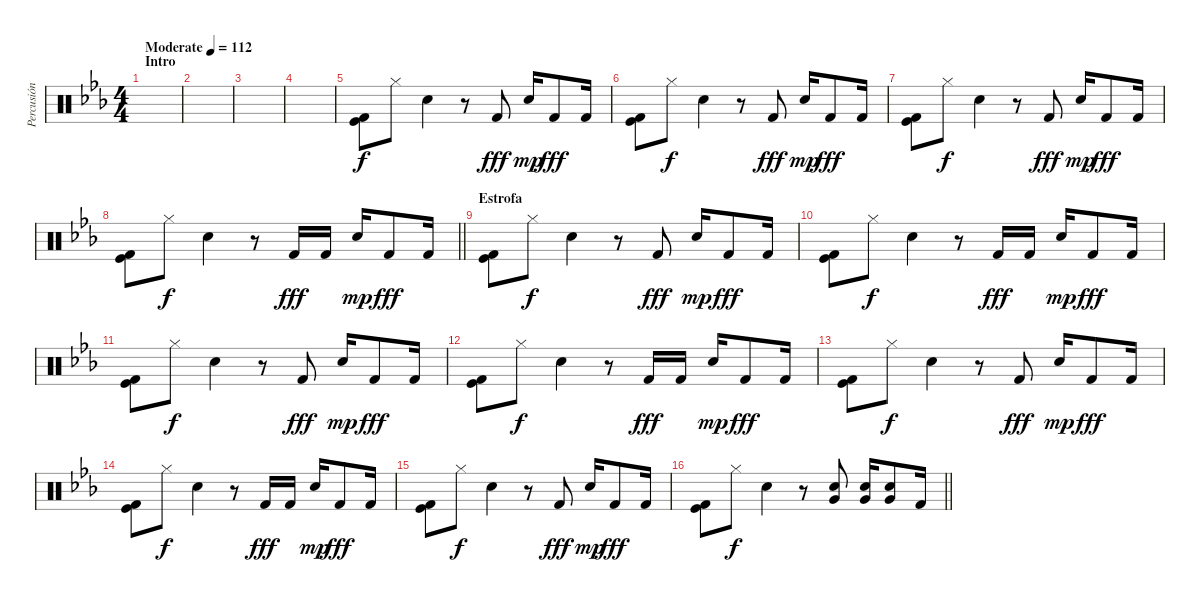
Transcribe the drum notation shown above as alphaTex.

\track ("Percusión" "Percusión") {instrument percussion}
\staff {score}
\articulation defaults
\ts (4 4)
\section ("" "Intro")
\tempo (112 "Moderate")
\clef neutral
\ks cminor
|
|
|
|
("Kick (hit) 2" "Kick (hit)").8 "Hi-Hat (closed)".8{dy f} "Snare (hit) 2".4 r.8 "Kick (hit) 2".8{dy fff} "Snare (hit) 2".16{dy mp} "Kick (hit) 2".8{dy fff} "Kick (hit) 2".16 |
("Kick (hit) 2" "Kick (hit)").8 "Hi-Hat (closed)".8{dy f} "Snare (hit) 2".4 r.8 "Kick (hit) 2".8{dy fff} "Snare (hit) 2".16{dy mp beam Up} "Kick (hit) 2".8{dy fff beam Up} "Kick (hit) 2".16 |
("Kick (hit) 2" "Kick (hit)").8 "Hi-Hat (closed)".8{dy f} "Snare (hit) 2".4 r.8 "Kick (hit) 2".8{dy fff} "Snare (hit) 2".16{dy mp} "Kick (hit) 2".8{dy fff} "Kick (hit) 2".16 |
\barLineRight lightlight
("Kick (hit) 2" "Kick (hit)").8 "Hi-Hat (closed)".8{dy f} "Snare (hit) 2".4 r.8 "Kick (hit) 2".16{dy fff} "Kick (hit) 2".16 "Snare (hit) 2".16{dy mp beam Up} "Kick (hit) 2".8{dy fff beam Up} "Kick (hit) 2".16 |
\section ("" "Estrofa")
("Kick (hit) 2" "Kick (hit)").8 "Hi-Hat (closed)".8{dy f} "Snare (hit) 2".4 r.8 "Kick (hit) 2".8{dy fff} "Snare (hit) 2".16{dy mp} "Kick (hit) 2".8{dy fff} "Kick (hit) 2".16 |
("Kick (hit) 2" "Kick (hit)").8 "Hi-Hat (closed)".8{dy f} "Snare (hit) 2".4 r.8 "Kick (hit) 2".16{dy fff} "Kick (hit) 2".16 "Snare (hit) 2".16{dy mp beam Up} "Kick (hit) 2".8{dy fff beam Up} "Kick (hit) 2".16 |
("Kick (hit) 2" "Kick (hit)").8 "Hi-Hat (closed)".8{dy f} "Snare (hit) 2".4 r.8 "Kick (hit) 2".8{dy fff} "Snare (hit) 2".16{dy mp} "Kick (hit) 2".8{dy fff} "Kick (hit) 2".16 |
("Kick (hit) 2" "Kick (hit)").8 "Hi-Hat (closed)".8{dy f} "Snare (hit) 2".4 r.8 "Kick (hit) 2".16{dy fff} "Kick (hit) 2".16 "Snare (hit) 2".16{dy mp beam Up} "Kick (hit) 2".8{dy fff beam Up} "Kick (hit) 2".16 |
("Kick (hit) 2" "Kick (hit)").8 "Hi-Hat (closed)".8{dy f} "Snare (hit) 2".4 r.8 "Kick (hit) 2".8{dy fff} "Snare (hit) 2".16{dy mp} "Kick (hit) 2".8{dy fff} "Kick (hit) 2".16 |
("Kick (hit) 2" "Kick (hit)").8 "Hi-Hat (closed)".8{dy f} "Snare (hit) 2".4 r.8 "Kick (hit) 2".16{dy fff} "Kick (hit) 2".16 "Snare (hit) 2".16{dy mp beam Up} "Kick (hit) 2".8{dy fff beam Up} "Kick (hit) 2".16 |
("Kick (hit) 2" "Kick (hit)").8 "Hi-Hat (closed)".8{dy f} "Snare (hit) 2".4 r.8 "Kick (hit) 2".8{dy fff} "Snare (hit) 2".16{dy mp} "Kick (hit) 2".8{dy fff} "Kick (hit) 2".16 |
\barLineRight lightlight
("Kick (hit) 2" "Kick (hit)").8 "Hi-Hat (closed)".8{dy f} "Snare (hit) 2".4 r.8 ("Snare (hit) 2" "Very Low Tom (hit)").8 ("Snare (hit) 2" "Very Low Tom (hit)").16 ("Snare (hit) 2" "Very Low Tom (hit)").8 "Kick (hit) 2".16
